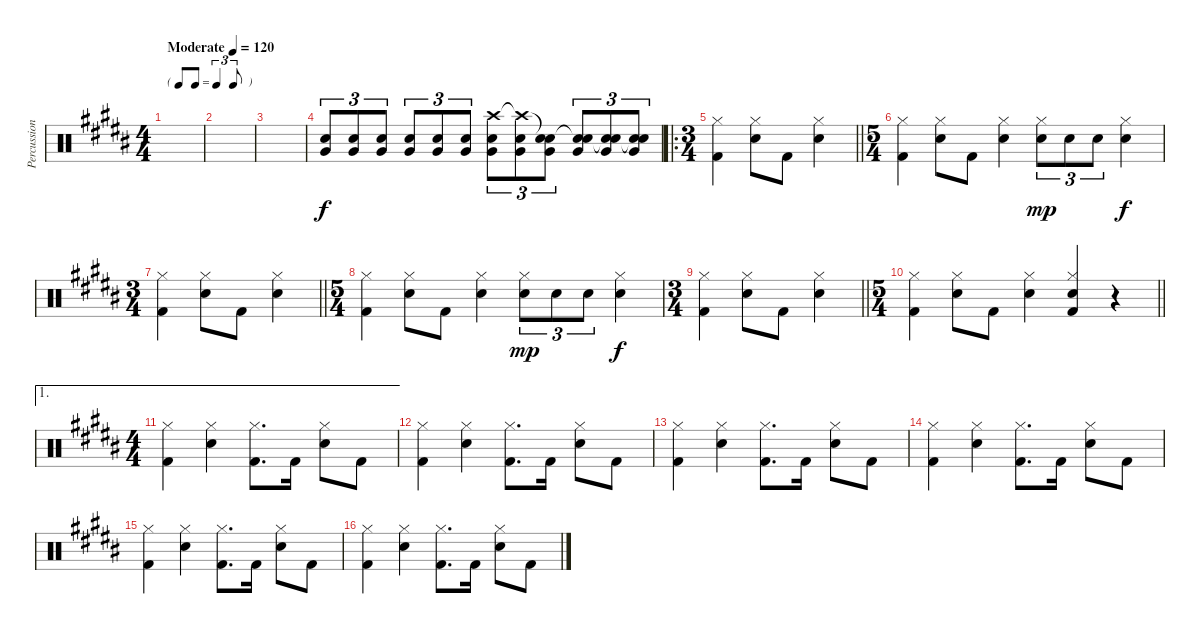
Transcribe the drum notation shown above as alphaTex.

\track ("Percussion" "Percussion") {instrument percussion}
\staff {score}
\articulation defaults
\ts (4 4)
\tf triplet8th
\tempo (120 "Moderate")
\clef neutral
\ks b
|
|
|
("Snare (hit) 2" "Very Low Tom (hit)").8{tu (3 2)} ("Snare (hit) 2" "Very Low Tom (hit)").8{tu (3 2)} ("Snare (hit) 2" "Very Low Tom (hit)").8{tu (3 2)} ("Snare (hit) 2" "Very Low Tom (hit)").8{tu (3 2)} ("Snare (hit) 2" "Very Low Tom (hit)").8{tu (3 2)} ("Snare (hit) 2" "Very Low Tom (hit)").8{tu (3 2)} ("Crash high (hit)" "Snare (hit) 2" "Very Low Tom (hit)").8{tu (3 2)} ("Crash high (hit)"{t} "Snare (hit) 2" "Very Low Tom (hit)").8{tu (3 2)} ("Snare (hit)"{t} "Snare (hit) 2" "Very Low Tom (hit)").8{tu (3 2)} ("Snare (hit)"{t} "Snare (hit) 2" "Very Low Tom (hit)").8{tu (3 2)} ("Snare (hit)"{t} "Snare (hit) 2" "Very Low Tom (hit)").8{tu (3 2)} ("Snare (hit)"{t} "Snare (hit) 2" "Very Low Tom (hit)").8{tu (3 2)} |
\ro
\ts (3 4)
\barLineRight lightlight
("Hi-Hat (closed)" "Kick (hit) 2").4 ("Hi-Hat (closed)" "Snare (hit) 2").8 "Kick (hit) 2".8 ("Hi-Hat (closed)" "Snare (hit) 2").4 |
\ts (5 4)
("Hi-Hat (closed)" "Kick (hit) 2").4 ("Hi-Hat (closed)" "Snare (hit) 2").8 "Kick (hit) 2".8 ("Hi-Hat (closed)" "Snare (hit) 2").4 ("Hi-Hat (closed)" "Snare (hit) 2").8{tu (3 2) dy mp} "Snare (hit) 2".8{tu (3 2)} "Snare (hit) 2".8{tu (3 2)} ("Hi-Hat (closed)" "Snare (hit) 2").4{dy f} |
\ts (3 4)
\barLineRight lightlight
("Hi-Hat (closed)" "Kick (hit) 2").4 ("Hi-Hat (closed)" "Snare (hit) 2").8 "Kick (hit) 2".8 ("Hi-Hat (closed)" "Snare (hit) 2").4 |
\ts (5 4)
("Hi-Hat (closed)" "Kick (hit) 2").4 ("Hi-Hat (closed)" "Snare (hit) 2").8 "Kick (hit) 2".8 ("Hi-Hat (closed)" "Snare (hit) 2").4 ("Hi-Hat (closed)" "Snare (hit) 2").8{tu (3 2) dy mp} "Snare (hit) 2".8{tu (3 2)} "Snare (hit) 2".8{tu (3 2)} ("Hi-Hat (closed)" "Snare (hit) 2").4{dy f} |
\ts (3 4)
\barLineRight lightlight
("Hi-Hat (closed)" "Kick (hit) 2").4 ("Hi-Hat (closed)" "Snare (hit) 2").8 "Kick (hit) 2".8 ("Hi-Hat (closed)" "Snare (hit) 2").4 |
\ts (5 4)
\barLineRight lightlight
("Hi-Hat (closed)" "Kick (hit) 2").4 ("Hi-Hat (closed)" "Snare (hit) 2").8 "Kick (hit) 2".8 ("Hi-Hat (closed)" "Snare (hit) 2").4 ("Hi-Hat (closed)" "Snare (hit) 2" "Kick (hit) 2").4 r.4 |
\ae 1
\ts (4 4)
("Hi-Hat (closed)" "Kick (hit) 2").4 ("Hi-Hat (closed)" "Snare (hit) 2").4 ("Hi-Hat (closed)" "Kick (hit) 2").8{d} "Kick (hit) 2".16 ("Hi-Hat (closed)" "Snare (hit) 2").8 "Kick (hit) 2".8 |
("Hi-Hat (closed)" "Kick (hit) 2").4 ("Hi-Hat (closed)" "Snare (hit) 2").4 ("Hi-Hat (closed)" "Kick (hit) 2").8{d} "Kick (hit) 2".16 ("Hi-Hat (closed)" "Snare (hit) 2").8 "Kick (hit) 2".8 |
("Hi-Hat (closed)" "Kick (hit) 2").4 ("Hi-Hat (closed)" "Snare (hit) 2").4 ("Hi-Hat (closed)" "Kick (hit) 2").8{d} "Kick (hit) 2".16 ("Hi-Hat (closed)" "Snare (hit) 2").8 "Kick (hit) 2".8 |
("Hi-Hat (closed)" "Kick (hit) 2").4 ("Hi-Hat (closed)" "Snare (hit) 2").4 ("Hi-Hat (closed)" "Kick (hit) 2").8{d} "Kick (hit) 2".16 ("Hi-Hat (closed)" "Snare (hit) 2").8 "Kick (hit) 2".8 |
("Hi-Hat (closed)" "Kick (hit) 2").4 ("Hi-Hat (closed)" "Snare (hit) 2").4 ("Hi-Hat (closed)" "Kick (hit) 2").8{d} "Kick (hit) 2".16 ("Hi-Hat (closed)" "Snare (hit) 2").8 "Kick (hit) 2".8 |
("Hi-Hat (closed)" "Kick (hit) 2").4 ("Hi-Hat (closed)" "Snare (hit) 2").4 ("Hi-Hat (closed)" "Kick (hit) 2").8{d} "Kick (hit) 2".16 ("Hi-Hat (closed)" "Snare (hit) 2").8 "Kick (hit) 2".8
